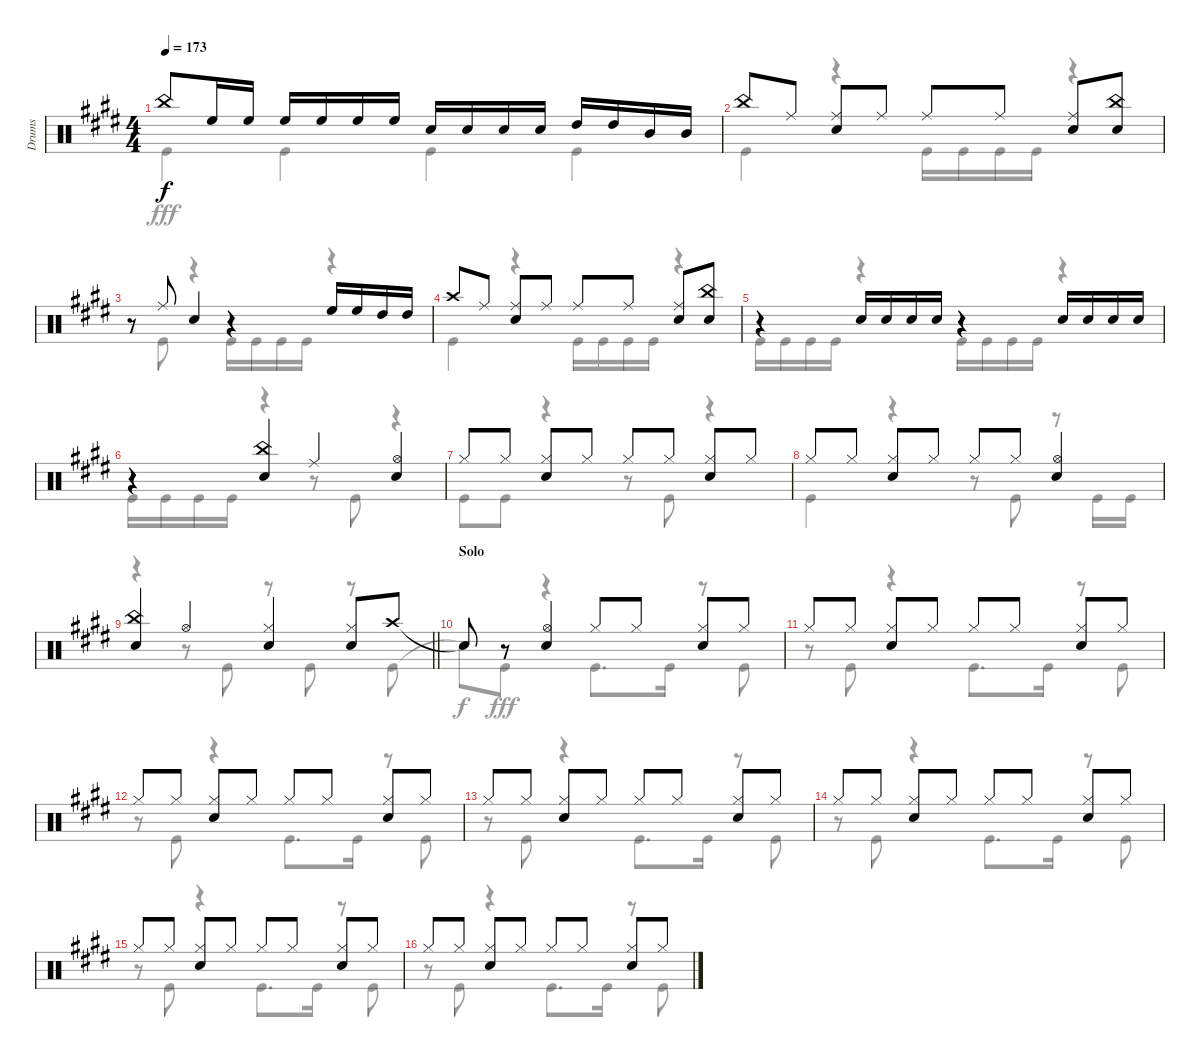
\track ("Drums" "Drums") {instrument percussion}
\staff {score}
\articulation defaults
\voice
\ts (4 4)
\tempo 173
\clef neutral
\ks e "China (hit)".8{dy f} "High Floor Tom (hit)".16 "High Floor Tom (hit)".16 "High Floor Tom (hit)".16 "High Floor Tom (hit)".16 "High Floor Tom (hit)".16 "High Floor Tom (hit)".16 "Snare (hit) 2".16 "Snare (hit) 2".16 "Snare (hit) 2".16 "Snare (hit) 2".16 "High Tom (hit)".16 "High Tom (hit)".16 "Mid Tom (hit)".16 "Mid Tom (hit)".16
|
"China (hit)".8 "Ride (middle)".8 ("Ride (middle)" "Snare (hit) 2").8 "Ride (middle)".8 "Ride (middle)".8 "Ride (middle)".8 ("Ride (middle)" "Snare (hit) 2").8 ("China (hit)" "Snare (hit) 2").8 |
r.8 "Ride (middle)".8 "Snare (hit) 2".4 r.4 "High Floor Tom (hit)".16 "High Floor Tom (hit)".16 "High Tom (hit)".16 "High Tom (hit)".16 |
"Crash high (hit)".8 "Ride (middle)".8 ("Ride (middle)" "Snare (hit) 2").8 "Ride (middle)".8 "Ride (middle)".8 "Ride (middle)".8 ("Ride (middle)" "Snare (hit) 2").8 ("China (hit)" "Snare (hit) 2").8 |
r.4 "Snare (hit) 2".16 "Snare (hit) 2".16 "Snare (hit) 2".16 "Snare (hit) 2".16 r.4 "Snare (hit) 2".16 "Snare (hit) 2".16 "Snare (hit) 2".16 "Snare (hit) 2".16 |
r.4 ("China (hit)" "Snare (hit) 2").4 "Ride (middle)".4 ("Hi-Hat (open)" "Snare (hit) 2").4 |
"Hi-Hat (closed)".8 "Hi-Hat (closed)".8 ("Hi-Hat (closed)" "Snare (hit) 2").8 "Hi-Hat (closed)".8 "Hi-Hat (closed)".8 "Hi-Hat (closed)".8 ("Hi-Hat (closed)" "Snare (hit) 2").8 "Hi-Hat (closed)".8 |
"Hi-Hat (closed)".8 "Hi-Hat (closed)".8 ("Hi-Hat (closed)" "Snare (hit) 2").8 "Hi-Hat (closed)".8 "Hi-Hat (closed)".8 "Hi-Hat (closed)".8 ("Hi-Hat (open)" "Snare (hit) 2").4 |
\barLineRight lightlight
("China (hit)" "Snare (hit) 2").4 "Hi-Hat (open)".4 ("Hi-Hat (closed)" "Snare (hit) 2").4 ("Hi-Hat (closed)" "Snare (hit) 2").8 "Crash high (hit)".8 |
\section ("" "Solo")
"Snare (hit)"{t}.8 r.8 ("Hi-Hat (open)" "Snare (hit) 2").4 "Hi-Hat (closed)".8 "Hi-Hat (closed)".8 ("Hi-Hat (closed)" "Snare (hit) 2").8 "Hi-Hat (closed)".8 |
"Hi-Hat (closed)".8 "Hi-Hat (closed)".8 ("Hi-Hat (closed)" "Snare (hit) 2").8 "Hi-Hat (closed)".8 "Hi-Hat (closed)".8 "Hi-Hat (closed)".8 ("Hi-Hat (closed)" "Snare (hit) 2").8 "Hi-Hat (closed)".8 |
"Hi-Hat (closed)".8 "Hi-Hat (closed)".8 ("Hi-Hat (closed)" "Snare (hit) 2").8 "Hi-Hat (closed)".8 "Hi-Hat (closed)".8 "Hi-Hat (closed)".8 ("Hi-Hat (closed)" "Snare (hit) 2").8 "Hi-Hat (closed)".8 |
"Hi-Hat (closed)".8 "Hi-Hat (closed)".8 ("Hi-Hat (closed)" "Snare (hit) 2").8 "Hi-Hat (closed)".8 "Hi-Hat (closed)".8 "Hi-Hat (closed)".8 ("Hi-Hat (closed)" "Snare (hit) 2").8 "Hi-Hat (closed)".8 |
"Hi-Hat (closed)".8 "Hi-Hat (closed)".8 ("Hi-Hat (closed)" "Snare (hit) 2").8 "Hi-Hat (closed)".8 "Hi-Hat (closed)".8 "Hi-Hat (closed)".8 ("Hi-Hat (closed)" "Snare (hit) 2").8 "Hi-Hat (closed)".8 |
"Hi-Hat (closed)".8 "Hi-Hat (closed)".8 ("Hi-Hat (closed)" "Snare (hit) 2").8 "Hi-Hat (closed)".8 "Hi-Hat (closed)".8 "Hi-Hat (closed)".8 ("Hi-Hat (closed)" "Snare (hit) 2").8 "Hi-Hat (closed)".8 |
"Hi-Hat (closed)".8 "Hi-Hat (closed)".8 ("Hi-Hat (closed)" "Snare (hit) 2").8 "Hi-Hat (closed)".8 "Hi-Hat (closed)".8 "Hi-Hat (closed)".8 ("Hi-Hat (closed)" "Snare (hit) 2").8 "Hi-Hat (closed)".8
\voice
\clef neutral
\ottava regular
\simile none
\ks e "Kick (hit)".4{dy fff} "Kick (hit)".4 "Kick (hit)".4 "Kick (hit)".4
|
"Kick (hit)".4 r.4 "Kick (hit)".16 "Kick (hit)".16 "Kick (hit)".16 "Kick (hit)".16 r.4 |
r.8 "Kick (hit)".8 r.4 "Kick (hit)".16 "Kick (hit)".16 "Kick (hit)".16 "Kick (hit)".16 r.4 |
"Kick (hit)".4 r.4 "Kick (hit)".16 "Kick (hit)".16 "Kick (hit)".16 "Kick (hit)".16 r.4 |
"Kick (hit)".16 "Kick (hit)".16 "Kick (hit)".16 "Kick (hit)".16 r.4 "Kick (hit)".16 "Kick (hit)".16 "Kick (hit)".16 "Kick (hit)".16 r.4 |
"Kick (hit)".16 "Kick (hit)".16 "Kick (hit)".16 "Kick (hit)".16 r.4 r.8 "Kick (hit)".8 r.4 |
"Kick (hit)".8 "Kick (hit)".8 r.4 r.8 "Kick (hit)".8 r.4 |
"Kick (hit)".4 r.4 r.8 "Kick (hit)".8 r.8 "Kick (hit)".16 "Kick (hit)".16 |
\barLineRight lightlight
r.4 r.8 "Kick (hit)".8 r.8 "Kick (hit)".8 r.8 "Kick (hit)".8 |
"Snare (hit)"{t}.8{dy f} "Kick (hit)".8{dy fff} r.4 "Kick (hit)".8{d} "Kick (hit)".16 r.8 "Kick (hit)".8 |
r.8 "Kick (hit)".8 r.4 "Kick (hit)".8{d} "Kick (hit)".16 r.8 "Kick (hit)".8 |
r.8 "Kick (hit)".8 r.4 "Kick (hit)".8{d} "Kick (hit)".16 r.8 "Kick (hit)".8 |
r.8 "Kick (hit)".8 r.4 "Kick (hit)".8{d} "Kick (hit)".16 r.8 "Kick (hit)".8 |
r.8 "Kick (hit)".8 r.4 "Kick (hit)".8{d} "Kick (hit)".16 r.8 "Kick (hit)".8 |
r.8 "Kick (hit)".8 r.4 "Kick (hit)".8{d} "Kick (hit)".16 r.8 "Kick (hit)".8 |
r.8 "Kick (hit)".8 r.4 "Kick (hit)".8{d} "Kick (hit)".16 r.8 "Kick (hit)".8
